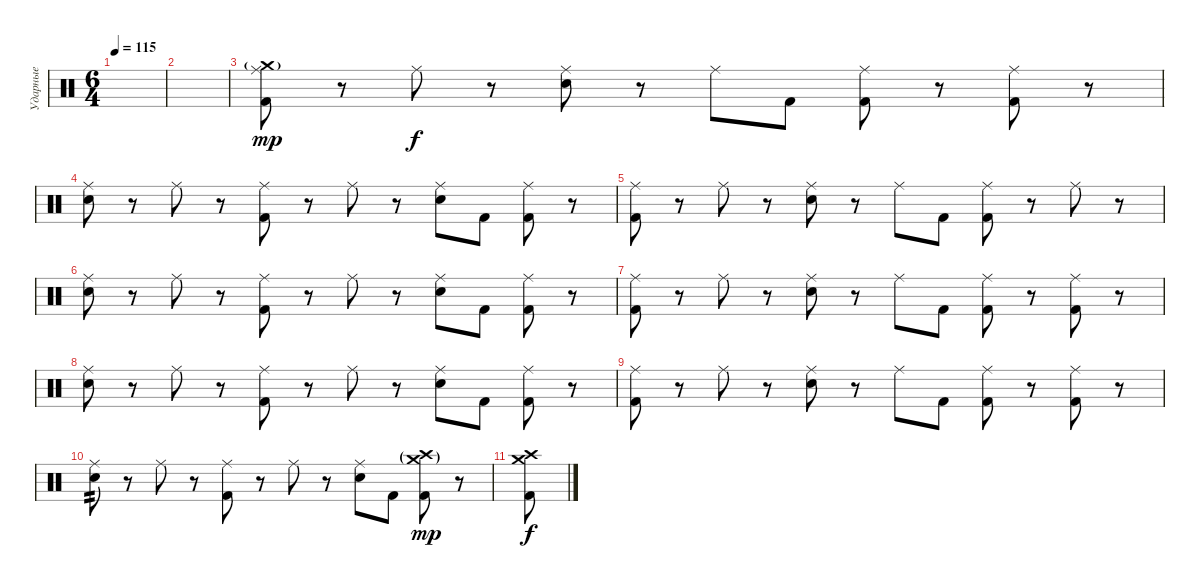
\track ("Ударные" "Ударные") {instrument percussion}
\staff {score}
\articulation defaults
\ts (6 4)
\tempo 115
\clef neutral
\ks c
|
|
("Crash medium (hit)"{g} "Ride (middle)" "Kick (hit) 2").8{dy mp} r.8 "Ride (middle)".8{dy f} r.8 ("Ride (middle)" "Electric Snare (hit)").8 r.8 "Ride (middle)".8 "Kick (hit) 2".8 ("Ride (middle)" "Kick (hit) 2").8 r.8 ("Ride (middle)" "Kick (hit) 2").8 r.8 |
("Ride (middle)" "Electric Snare (hit)").8 r.8 "Ride (middle)".8 r.8 ("Ride (middle)" "Kick (hit) 2").8 r.8 "Ride (middle)".8 r.8 ("Ride (middle)" "Electric Snare (hit)").8 "Kick (hit) 2".8 ("Ride (middle)" "Kick (hit) 2").8 r.8 |
("Ride (middle)" "Kick (hit) 2").8 r.8 "Ride (middle)".8 r.8 ("Ride (middle)" "Electric Snare (hit)").8 r.8 "Ride (middle)".8 "Kick (hit) 2".8 ("Ride (middle)" "Kick (hit) 2").8 r.8 "Ride (middle)".8 r.8 |
("Ride (middle)" "Electric Snare (hit)").8 r.8 "Ride (middle)".8 r.8 ("Ride (middle)" "Kick (hit) 2").8 r.8 "Ride (middle)".8 r.8 ("Ride (middle)" "Electric Snare (hit)").8 "Kick (hit) 2".8 ("Ride (middle)" "Kick (hit) 2").8 r.8 |
("Ride (middle)" "Kick (hit) 2").8 r.8 "Ride (middle)".8 r.8 ("Ride (middle)" "Electric Snare (hit)").8 r.8 "Ride (middle)".8 "Kick (hit) 2".8 ("Ride (middle)" "Kick (hit) 2").8 r.8 ("Ride (middle)" "Kick (hit) 2").8 r.8 |
("Ride (middle)" "Electric Snare (hit)").8 r.8 "Ride (middle)".8 r.8 ("Ride (middle)" "Kick (hit) 2").8 r.8 "Ride (middle)".8 r.8 ("Ride (middle)" "Electric Snare (hit)").8 "Kick (hit) 2".8 ("Ride (middle)" "Kick (hit) 2").8 r.8 |
("Ride (middle)" "Kick (hit) 2").8 r.8 "Ride (middle)".8 r.8 ("Ride (middle)" "Electric Snare (hit)").8 r.8 "Ride (middle)".8 "Kick (hit) 2".8 ("Ride (middle)" "Kick (hit) 2").8 r.8 ("Ride (middle)" "Kick (hit) 2").8 r.8 |
("Ride (middle)" "Electric Snare (hit)").8{tp 2} r.8 "Ride (middle)".8 r.8 ("Ride (middle)" "Kick (hit) 2").8 r.8 "Ride (middle)".8 r.8 ("Ride (middle)" "Electric Snare (hit)").8 "Kick (hit) 2".8 ("Crash medium (hit)"{g} "Crash high (hit)"{g} "Kick (hit) 2").8{dy mp} r.8 |
("Crash medium (hit)" "Crash high (hit)" "Kick (hit) 2").8{dy f}
